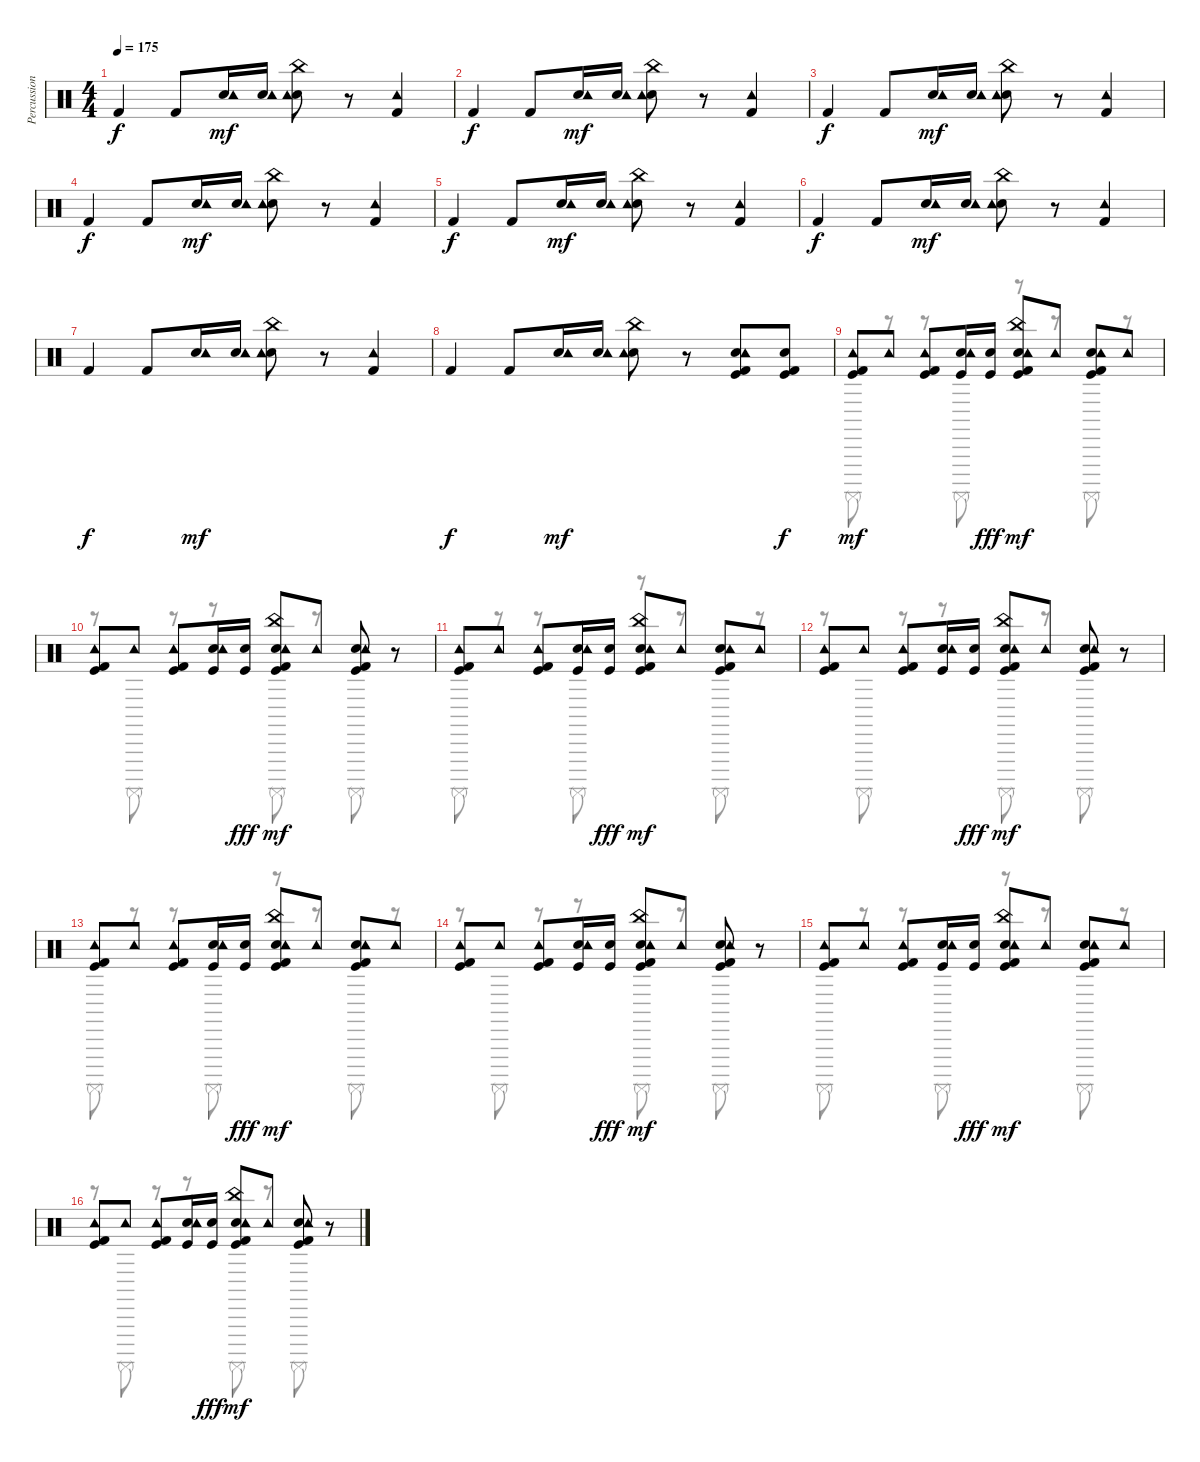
\track ("Percussion" "Percussion") {instrument percussion}
\staff {score}
\articulation defaults
\voice
\ts (4 4)
\tempo 175
\clef neutral
\ks c "Kick (hit) 2".4{dy f} "Kick (hit) 2".8
("Electric Snare (hit)" "Tambourine (hit)").16{dy mf} ("Electric Snare (hit)" "Tambourine (hit)").16 ("Electric Snare (hit)" "China (hit)" "Tambourine (hit)").8 r.8 ("Kick (hit) 2" "Tambourine (hit)").4 |
"Kick (hit) 2".4{dy f} "Kick (hit) 2".8 ("Electric Snare (hit)" "Tambourine (hit)").16{dy mf} ("Electric Snare (hit)" "Tambourine (hit)").16 ("Electric Snare (hit)" "China (hit)" "Tambourine (hit)").8 r.8 ("Kick (hit) 2" "Tambourine (hit)").4 |
"Kick (hit) 2".4{dy f} "Kick (hit) 2".8 ("Electric Snare (hit)" "Tambourine (hit)").16{dy mf} ("Electric Snare (hit)" "Tambourine (hit)").16 ("Electric Snare (hit)" "China (hit)" "Tambourine (hit)").8 r.8 ("Kick (hit) 2" "Tambourine (hit)").4 |
"Kick (hit) 2".4{dy f} "Kick (hit) 2".8 ("Electric Snare (hit)" "Tambourine (hit)").16{dy mf} ("Electric Snare (hit)" "Tambourine (hit)").16 ("Electric Snare (hit)" "China (hit)" "Tambourine (hit)").8 r.8 ("Kick (hit) 2" "Tambourine (hit)").4 |
"Kick (hit) 2".4{dy f} "Kick (hit) 2".8 ("Electric Snare (hit)" "Tambourine (hit)").16{dy mf} ("Electric Snare (hit)" "Tambourine (hit)").16 ("Electric Snare (hit)" "China (hit)" "Tambourine (hit)").8 r.8 ("Kick (hit) 2" "Tambourine (hit)").4 |
"Kick (hit) 2".4{dy f} "Kick (hit) 2".8 ("Electric Snare (hit)" "Tambourine (hit)").16{dy mf} ("Electric Snare (hit)" "Tambourine (hit)").16 ("Electric Snare (hit)" "China (hit)" "Tambourine (hit)").8 r.8 ("Kick (hit) 2" "Tambourine (hit)").4 |
"Kick (hit) 2".4{dy f} "Kick (hit) 2".8 ("Electric Snare (hit)" "Tambourine (hit)").16{dy mf} ("Electric Snare (hit)" "Tambourine (hit)").16 ("Electric Snare (hit)" "China (hit)" "Tambourine (hit)").8 r.8 ("Kick (hit) 2" "Tambourine (hit)").4 |
"Kick (hit) 2".4{dy f} "Kick (hit) 2".8 ("Electric Snare (hit)" "Tambourine (hit)").16{dy mf} ("Electric Snare (hit)" "Tambourine (hit)").16 ("Electric Snare (hit)" "China (hit)" "Tambourine (hit)").8 r.8 ("Kick (hit)" "Kick (hit) 2" "Electric Snare (hit)" "Tambourine (hit)").8 ("Kick (hit)" "Kick (hit) 2" "Electric Snare (hit)").8{dy f} |
("Kick (hit)" "Kick (hit) 2" "Tambourine (hit)").8{dy mf} "Tambourine (hit)".8 ("Kick (hit)" "Kick (hit) 2" "Tambourine (hit)").8 ("Kick (hit)" "Electric Snare (hit)" "Tambourine (hit)").16 ("Kick (hit)" "Electric Snare (hit)").16{dy fff} ("Kick (hit)" "Kick (hit) 2" "Electric Snare (hit)" "China (hit)" "Tambourine (hit)").8{dy mf} "Tambourine (hit)".8 ("Kick (hit)" "Kick (hit) 2" "Electric Snare (hit)" "Tambourine (hit)").8 "Tambourine (hit)".8 |
("Kick (hit)" "Kick (hit) 2" "Tambourine (hit)").8 "Tambourine (hit)".8 ("Kick (hit)" "Kick (hit) 2" "Tambourine (hit)").8 ("Kick (hit)" "Electric Snare (hit)" "Tambourine (hit)").16 ("Kick (hit)" "Electric Snare (hit)").16{dy fff} ("Kick (hit)" "Kick (hit) 2" "Electric Snare (hit)" "China (hit)" "Tambourine (hit)").8{dy mf} "Tambourine (hit)".8 ("Kick (hit)" "Kick (hit) 2" "Electric Snare (hit)" "Tambourine (hit)").8 r.8 |
("Kick (hit)" "Kick (hit) 2" "Tambourine (hit)").8 "Tambourine (hit)".8 ("Kick (hit)" "Kick (hit) 2" "Tambourine (hit)").8 ("Kick (hit)" "Electric Snare (hit)" "Tambourine (hit)").16 ("Kick (hit)" "Electric Snare (hit)").16{dy fff} ("Kick (hit)" "Kick (hit) 2" "Electric Snare (hit)" "China (hit)" "Tambourine (hit)").8{dy mf} "Tambourine (hit)".8 ("Kick (hit)" "Kick (hit) 2" "Electric Snare (hit)" "Tambourine (hit)").8 "Tambourine (hit)".8 |
("Kick (hit)" "Kick (hit) 2" "Tambourine (hit)").8 "Tambourine (hit)".8 ("Kick (hit)" "Kick (hit) 2" "Tambourine (hit)").8 ("Kick (hit)" "Electric Snare (hit)" "Tambourine (hit)").16 ("Kick (hit)" "Electric Snare (hit)").16{dy fff} ("Kick (hit)" "Kick (hit) 2" "Electric Snare (hit)" "China (hit)" "Tambourine (hit)").8{dy mf} "Tambourine (hit)".8 ("Kick (hit)" "Kick (hit) 2" "Electric Snare (hit)" "Tambourine (hit)").8 r.8 |
("Kick (hit)" "Kick (hit) 2" "Tambourine (hit)").8 "Tambourine (hit)".8 ("Kick (hit)" "Kick (hit) 2" "Tambourine (hit)").8 ("Kick (hit)" "Electric Snare (hit)" "Tambourine (hit)").16 ("Kick (hit)" "Electric Snare (hit)").16{dy fff} ("Kick (hit)" "Kick (hit) 2" "Electric Snare (hit)" "China (hit)" "Tambourine (hit)").8{dy mf} "Tambourine (hit)".8 ("Kick (hit)" "Kick (hit) 2" "Electric Snare (hit)" "Tambourine (hit)").8 "Tambourine (hit)".8 |
("Kick (hit)" "Kick (hit) 2" "Tambourine (hit)").8 "Tambourine (hit)".8 ("Kick (hit)" "Kick (hit) 2" "Tambourine (hit)").8 ("Kick (hit)" "Electric Snare (hit)" "Tambourine (hit)").16 ("Kick (hit)" "Electric Snare (hit)").16{dy fff} ("Kick (hit)" "Kick (hit) 2" "Electric Snare (hit)" "China (hit)" "Tambourine (hit)").8{dy mf} "Tambourine (hit)".8 ("Kick (hit)" "Kick (hit) 2" "Electric Snare (hit)" "Tambourine (hit)").8 r.8 |
("Kick (hit)" "Kick (hit) 2" "Tambourine (hit)").8 "Tambourine (hit)".8 ("Kick (hit)" "Kick (hit) 2" "Tambourine (hit)").8 ("Kick (hit)" "Electric Snare (hit)" "Tambourine (hit)").16 ("Kick (hit)" "Electric Snare (hit)").16{dy fff} ("Kick (hit)" "Kick (hit) 2" "Electric Snare (hit)" "China (hit)" "Tambourine (hit)").8{dy mf} "Tambourine (hit)".8 ("Kick (hit)" "Kick (hit) 2" "Electric Snare (hit)" "Tambourine (hit)").8 "Tambourine (hit)".8 |
("Kick (hit)" "Kick (hit) 2" "Tambourine (hit)").8 "Tambourine (hit)".8 ("Kick (hit)" "Kick (hit) 2" "Tambourine (hit)").8 ("Kick (hit)" "Electric Snare (hit)" "Tambourine (hit)").16 ("Kick (hit)" "Electric Snare (hit)").16{dy fff} ("Kick (hit)" "Kick (hit) 2" "Electric Snare (hit)" "China (hit)" "Tambourine (hit)").8{dy mf} "Tambourine (hit)".8 ("Kick (hit)" "Kick (hit) 2" "Electric Snare (hit)" "Tambourine (hit)").8 r.8
\voice
\clef neutral
\ottava regular
\simile none
\ks c
|
|
|
|
|
|
|
|
"Surdo (mute)".8 r.8 r.8 "Surdo (mute)".8 r.8 r.8 "Surdo (mute)".8 r.8 |
r.8 "Surdo (mute)".8 r.8 r.8 "Surdo (mute)".8 r.8 "Surdo (mute)".8 r.8 |
"Surdo (mute)".8 r.8 r.8 "Surdo (mute)".8 r.8 r.8 "Surdo (mute)".8 r.8 |
r.8 "Surdo (mute)".8 r.8 r.8 "Surdo (mute)".8 r.8 "Surdo (mute)".8 r.8 |
"Surdo (mute)".8 r.8 r.8 "Surdo (mute)".8 r.8 r.8 "Surdo (mute)".8 r.8 |
r.8 "Surdo (mute)".8 r.8 r.8 "Surdo (mute)".8 r.8 "Surdo (mute)".8 r.8 |
"Surdo (mute)".8 r.8 r.8 "Surdo (mute)".8 r.8 r.8 "Surdo (mute)".8 r.8 |
r.8 "Surdo (mute)".8 r.8 r.8 "Surdo (mute)".8 r.8 "Surdo (mute)".8 r.8
